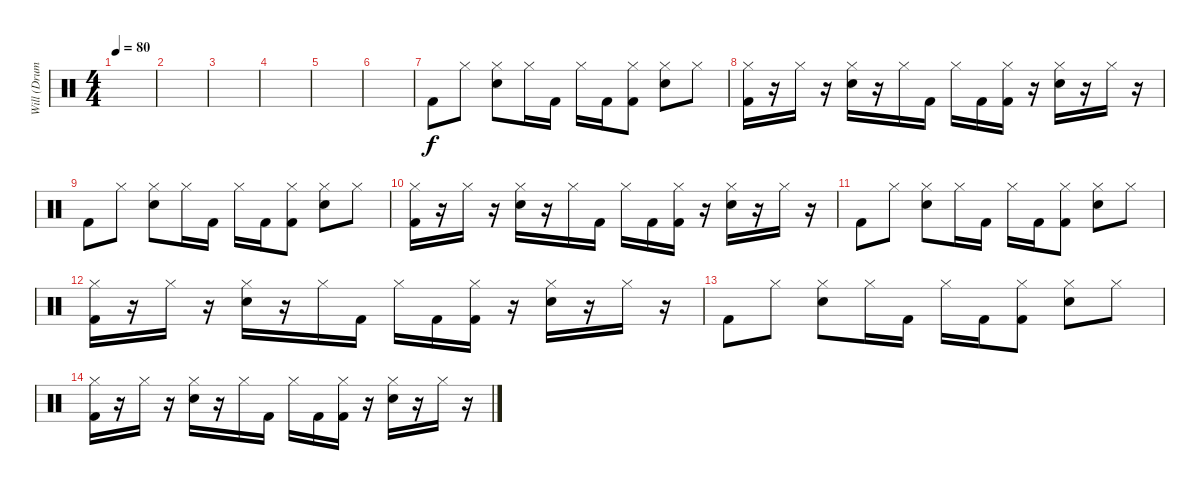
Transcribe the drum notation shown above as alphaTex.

\track ("Will (Drums)" "Will (Drum") {instrument percussion}
\staff {score}
\articulation defaults
\ts (4 4)
\tempo 80
\clef neutral
\ks c
|
|
|
|
|
|
"Kick (hit) 2".8 "Hi-Hat (closed)".8 ("Hi-Hat (closed)" "Snare (hit) 2").8 "Hi-Hat (closed)".16 "Kick (hit) 2".16 "Hi-Hat (closed)".16 "Kick (hit) 2".16 ("Hi-Hat (closed)" "Kick (hit) 2").8 ("Hi-Hat (closed)" "Snare (hit) 2").8 "Hi-Hat (closed)".8 |
("Hi-Hat (closed)" "Kick (hit) 2").16 r.16 "Hi-Hat (closed)".16 r.16 ("Hi-Hat (closed)" "Snare (hit) 2").16 r.16 "Hi-Hat (closed)".16 "Kick (hit) 2".16 "Hi-Hat (closed)".16 "Kick (hit) 2".16 ("Hi-Hat (closed)" "Kick (hit) 2").16 r.16 ("Hi-Hat (closed)" "Snare (hit) 2").16 r.16 "Hi-Hat (closed)".16 r.16 |
"Kick (hit) 2".8 "Hi-Hat (closed)".8 ("Hi-Hat (closed)" "Snare (hit) 2").8 "Hi-Hat (closed)".16 "Kick (hit) 2".16 "Hi-Hat (closed)".16 "Kick (hit) 2".16 ("Hi-Hat (closed)" "Kick (hit) 2").8 ("Hi-Hat (closed)" "Snare (hit) 2").8 "Hi-Hat (closed)".8 |
("Hi-Hat (closed)" "Kick (hit) 2").16 r.16 "Hi-Hat (closed)".16 r.16 ("Hi-Hat (closed)" "Snare (hit) 2").16 r.16 "Hi-Hat (closed)".16 "Kick (hit) 2".16 "Hi-Hat (closed)".16 "Kick (hit) 2".16 ("Hi-Hat (closed)" "Kick (hit) 2").16 r.16 ("Hi-Hat (closed)" "Snare (hit) 2").16 r.16 "Hi-Hat (closed)".16 r.16 |
"Kick (hit) 2".8 "Hi-Hat (closed)".8 ("Hi-Hat (closed)" "Snare (hit) 2").8 "Hi-Hat (closed)".16 "Kick (hit) 2".16 "Hi-Hat (closed)".16 "Kick (hit) 2".16 ("Hi-Hat (closed)" "Kick (hit) 2").8 ("Hi-Hat (closed)" "Snare (hit) 2").8 "Hi-Hat (closed)".8 |
("Hi-Hat (closed)" "Kick (hit) 2").16 r.16 "Hi-Hat (closed)".16 r.16 ("Hi-Hat (closed)" "Snare (hit) 2").16 r.16 "Hi-Hat (closed)".16 "Kick (hit) 2".16 "Hi-Hat (closed)".16 "Kick (hit) 2".16 ("Hi-Hat (closed)" "Kick (hit) 2").16 r.16 ("Hi-Hat (closed)" "Snare (hit) 2").16 r.16 "Hi-Hat (closed)".16 r.16 |
"Kick (hit) 2".8 "Hi-Hat (closed)".8 ("Hi-Hat (closed)" "Snare (hit) 2").8 "Hi-Hat (closed)".16 "Kick (hit) 2".16 "Hi-Hat (closed)".16 "Kick (hit) 2".16 ("Hi-Hat (closed)" "Kick (hit) 2").8 ("Hi-Hat (closed)" "Snare (hit) 2").8 "Hi-Hat (closed)".8 |
("Hi-Hat (closed)" "Kick (hit) 2").16 r.16 "Hi-Hat (closed)".16 r.16 ("Hi-Hat (closed)" "Snare (hit) 2").16 r.16 "Hi-Hat (closed)".16 "Kick (hit) 2".16 "Hi-Hat (closed)".16 "Kick (hit) 2".16 ("Hi-Hat (closed)" "Kick (hit) 2").16 r.16 ("Hi-Hat (closed)" "Snare (hit) 2").16 r.16 "Hi-Hat (closed)".16 r.16
